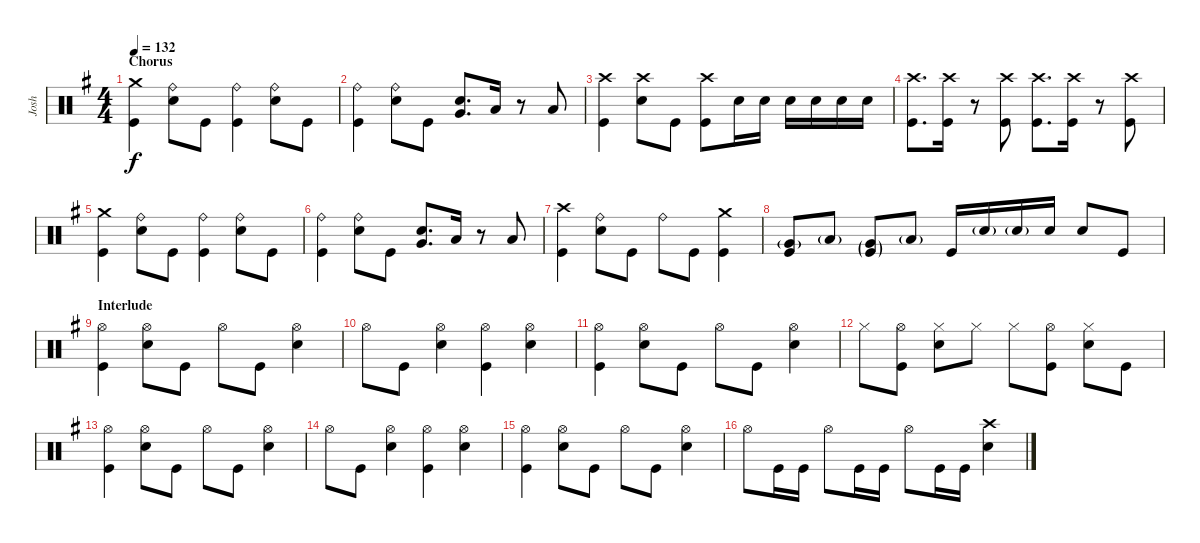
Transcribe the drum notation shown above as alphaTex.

\track ("Josh" "Josh") {instrument percussion}
\staff {score}
\articulation defaults
\ts (4 4)
\section ("" "Chorus")
\tempo 132
\clef neutral
\ks g
("Kick (hit)" "Crash medium (hit)").4{dy f} ("Snare (hit) 2" "Ride (bell)").8 "Kick (hit)".8 ("Kick (hit)" "Ride (bell)").4 ("Snare (hit) 2" "Ride (bell)").8 "Kick (hit)".8 |
("Kick (hit)" "Ride (bell)").4 ("Snare (hit) 2" "Ride (bell)").8 "Kick (hit)".8 ("Snare (hit) 2" "Very Low Tom (hit)").8{d} "Low Tom (hit)".16 r.8 "Low Floor Tom (hit)".8 |
("Kick (hit)" "Crash high (hit)").4 ("Snare (hit) 2" "Crash high (hit)").8 "Kick (hit)".8 ("Kick (hit)" "Crash high (hit)").8 "Snare (hit) 2".16 "Snare (hit) 2".16 "Snare (hit) 2".16 "Snare (hit) 2".16 "Snare (hit) 2".16 "Snare (hit) 2".16 |
("Kick (hit)" "Crash high (hit)").8{d} ("Kick (hit)" "Crash high (hit)").16 r.8 ("Kick (hit)" "Crash high (hit)").8 ("Kick (hit)" "Crash high (hit)").8{d} ("Kick (hit)" "Crash high (hit)").16 r.8 ("Kick (hit)" "Crash high (hit)").8 |
("Kick (hit)" "Crash medium (hit)").4 ("Snare (hit) 2" "Ride (bell)").8 "Kick (hit)".8 ("Kick (hit)" "Ride (bell)").4 ("Snare (hit) 2" "Ride (bell)").8 "Kick (hit)".8 |
("Kick (hit)" "Ride (bell)").4 ("Snare (hit) 2" "Ride (bell)").8 "Kick (hit)".8 ("Snare (hit) 2" "Very Low Tom (hit)").8{d} "Low Tom (hit)".16 r.8 "Low Floor Tom (hit)".8 |
("Kick (hit)" "Crash high (hit)").4 ("Snare (hit) 2" "Ride (bell)").8 "Kick (hit)".8 "Ride (bell)".8 "Kick (hit)".8 ("Kick (hit)" "Crash medium (hit)").4 |
("Kick (hit)" "Very Low Tom (hit)"{g}).8 "Low Floor Tom (hit)"{g}.8 ("Very Low Tom (hit)"{g} "Kick (hit)"{g}).8 "Low Floor Tom (hit)"{g}.8 "Kick (hit)".16 "Snare (hit) 2"{g}.16 "Snare (hit) 2"{g}.16 "Snare (hit) 2".16 "Snare (hit) 2".8 "Kick (hit)".8 |
\section ("" "Interlude")
("Kick (hit)" "Hi-Hat (open)").4 ("Snare (hit) 2" "Hi-Hat (open)").8 "Kick (hit)".8 "Hi-Hat (open)".8 "Kick (hit)".8 ("Hi-Hat (open)" "Snare (hit) 2").4 |
"Hi-Hat (open)".8 "Kick (hit)".8 ("Snare (hit) 2" "Hi-Hat (open)").4 ("Kick (hit)" "Hi-Hat (open)").4 ("Snare (hit) 2" "Hi-Hat (open)").4 |
("Kick (hit)" "Hi-Hat (open)").4 ("Snare (hit) 2" "Hi-Hat (open)").8 "Kick (hit)".8 "Hi-Hat (open)".8 "Kick (hit)".8 ("Hi-Hat (open)" "Snare (hit) 2").4 |
"Hi-Hat (closed)".8 ("Kick (hit)" "Hi-Hat (open)").8 ("Snare (hit) 2" "Hi-Hat (closed)").8 "Hi-Hat (closed)".8 "Hi-Hat (closed)".8 ("Kick (hit)" "Hi-Hat (open)").8 ("Snare (hit) 2" "Hi-Hat (closed)").8 "Kick (hit)".8 |
("Kick (hit)" "Hi-Hat (open)").4 ("Snare (hit) 2" "Hi-Hat (open)").8 "Kick (hit)".8 "Hi-Hat (open)".8 "Kick (hit)".8 ("Hi-Hat (open)" "Snare (hit) 2").4 |
"Hi-Hat (open)".8 "Kick (hit)".8 ("Snare (hit) 2" "Hi-Hat (open)").4 ("Kick (hit)" "Hi-Hat (open)").4 ("Snare (hit) 2" "Hi-Hat (open)").4 |
("Kick (hit)" "Hi-Hat (open)").4 ("Snare (hit) 2" "Hi-Hat (open)").8 "Kick (hit)".8 "Hi-Hat (open)".8 "Kick (hit)".8 ("Hi-Hat (open)" "Snare (hit) 2").4 |
"Hi-Hat (open)".8 "Kick (hit)".16 "Kick (hit)".16 "Hi-Hat (open)".8 "Kick (hit)".16 "Kick (hit)".16 "Hi-Hat (open)".8 "Kick (hit)".16 "Kick (hit)".16 ("Snare (hit) 2" "Crash high (hit)").4
